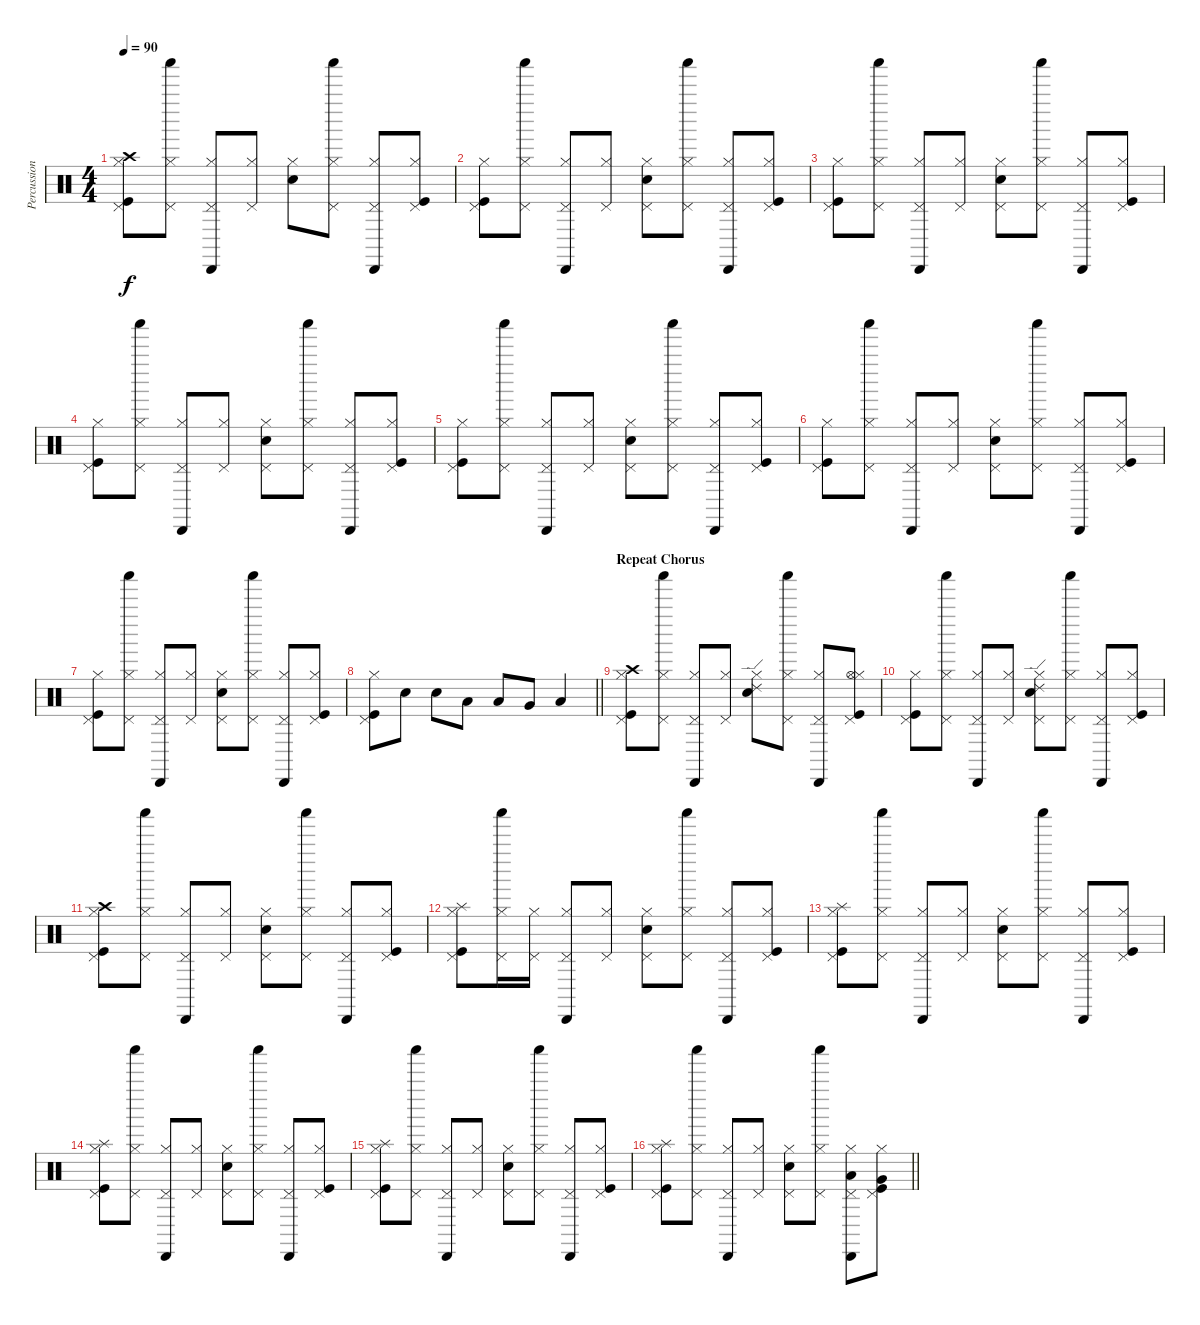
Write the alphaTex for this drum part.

\track ("Percussion" "Percussion") {instrument percussion}
\staff {score}
\articulation defaults
\ts (4 4)
\tempo 90
\clef neutral
\ks c
("Crash high (hit)" "Hi-Hat (closed)" "Pedal Hi-Hat (hit)" "Kick (hit)").8{dy f} ("Hi-Hat (closed)" "Pedal Hi-Hat (hit)" "Shaker (hit)").8 ("Hi-Hat (closed)" "Pedal Hi-Hat (hit)" "Cabasa (hit)").8 ("Hi-Hat (closed)" "Pedal Hi-Hat (hit)").8 ("Electric Snare (hit)" "Hi-Hat (closed)").8 ("Hi-Hat (closed)" "Pedal Hi-Hat (hit)" "Shaker (hit)").8 ("Hi-Hat (closed)" "Pedal Hi-Hat (hit)" "Cabasa (hit)").8 ("Hi-Hat (closed)" "Pedal Hi-Hat (hit)" "Kick (hit)").8 |
("Hi-Hat (closed)" "Pedal Hi-Hat (hit)" "Kick (hit)").8 ("Hi-Hat (closed)" "Pedal Hi-Hat (hit)" "Shaker (hit)").8 ("Hi-Hat (closed)" "Pedal Hi-Hat (hit)" "Cabasa (hit)").8 ("Hi-Hat (closed)" "Pedal Hi-Hat (hit)").8 ("Hi-Hat (closed)" "Pedal Hi-Hat (hit)" "Electric Snare (hit)").8 ("Hi-Hat (closed)" "Pedal Hi-Hat (hit)" "Shaker (hit)").8 ("Hi-Hat (closed)" "Pedal Hi-Hat (hit)" "Cabasa (hit)").8 ("Hi-Hat (closed)" "Pedal Hi-Hat (hit)" "Kick (hit)").8 |
("Hi-Hat (closed)" "Pedal Hi-Hat (hit)" "Kick (hit)").8 ("Hi-Hat (closed)" "Pedal Hi-Hat (hit)" "Shaker (hit)").8 ("Hi-Hat (closed)" "Pedal Hi-Hat (hit)" "Cabasa (hit)").8 ("Hi-Hat (closed)" "Pedal Hi-Hat (hit)").8 ("Hi-Hat (closed)" "Pedal Hi-Hat (hit)" "Electric Snare (hit)").8 ("Hi-Hat (closed)" "Pedal Hi-Hat (hit)" "Shaker (hit)").8 ("Hi-Hat (closed)" "Pedal Hi-Hat (hit)" "Cabasa (hit)").8 ("Hi-Hat (closed)" "Pedal Hi-Hat (hit)" "Kick (hit)").8 |
("Hi-Hat (closed)" "Pedal Hi-Hat (hit)" "Kick (hit)").8 ("Hi-Hat (closed)" "Pedal Hi-Hat (hit)" "Shaker (hit)").8 ("Hi-Hat (closed)" "Pedal Hi-Hat (hit)" "Cabasa (hit)").8 ("Hi-Hat (closed)" "Pedal Hi-Hat (hit)").8 ("Hi-Hat (closed)" "Pedal Hi-Hat (hit)" "Electric Snare (hit)").8 ("Hi-Hat (closed)" "Pedal Hi-Hat (hit)" "Shaker (hit)").8 ("Hi-Hat (closed)" "Pedal Hi-Hat (hit)" "Cabasa (hit)").8 ("Hi-Hat (closed)" "Pedal Hi-Hat (hit)" "Kick (hit)").8 |
("Hi-Hat (closed)" "Pedal Hi-Hat (hit)" "Kick (hit)").8 ("Hi-Hat (closed)" "Pedal Hi-Hat (hit)" "Shaker (hit)").8 ("Hi-Hat (closed)" "Pedal Hi-Hat (hit)" "Cabasa (hit)").8 ("Hi-Hat (closed)" "Pedal Hi-Hat (hit)").8 ("Hi-Hat (closed)" "Pedal Hi-Hat (hit)" "Electric Snare (hit)").8 ("Hi-Hat (closed)" "Pedal Hi-Hat (hit)" "Shaker (hit)").8 ("Hi-Hat (closed)" "Pedal Hi-Hat (hit)" "Cabasa (hit)").8 ("Hi-Hat (closed)" "Pedal Hi-Hat (hit)" "Kick (hit)").8 |
("Hi-Hat (closed)" "Pedal Hi-Hat (hit)" "Kick (hit)").8 ("Hi-Hat (closed)" "Pedal Hi-Hat (hit)" "Shaker (hit)").8 ("Hi-Hat (closed)" "Pedal Hi-Hat (hit)" "Cabasa (hit)").8 ("Hi-Hat (closed)" "Pedal Hi-Hat (hit)").8 ("Hi-Hat (closed)" "Pedal Hi-Hat (hit)" "Electric Snare (hit)").8 ("Hi-Hat (closed)" "Pedal Hi-Hat (hit)" "Shaker (hit)").8 ("Hi-Hat (closed)" "Pedal Hi-Hat (hit)" "Cabasa (hit)").8 ("Hi-Hat (closed)" "Pedal Hi-Hat (hit)" "Kick (hit)").8 |
("Hi-Hat (closed)" "Pedal Hi-Hat (hit)" "Kick (hit)").8 ("Hi-Hat (closed)" "Pedal Hi-Hat (hit)" "Shaker (hit)").8 ("Hi-Hat (closed)" "Pedal Hi-Hat (hit)" "Cabasa (hit)").8 ("Hi-Hat (closed)" "Pedal Hi-Hat (hit)").8 ("Hi-Hat (closed)" "Pedal Hi-Hat (hit)" "Electric Snare (hit)").8 ("Hi-Hat (closed)" "Pedal Hi-Hat (hit)" "Shaker (hit)").8 ("Hi-Hat (closed)" "Pedal Hi-Hat (hit)" "Cabasa (hit)").8 ("Hi-Hat (closed)" "Pedal Hi-Hat (hit)" "Kick (hit)").8 |
\barLineRight lightlight
("Hi-Hat (closed)" "Pedal Hi-Hat (hit)" "Kick (hit)").8 "Electric Snare (hit)".8 "Electric Snare (hit)".8 "Low Tom (hit)".8 "Low Tom (hit)".8 "Very Low Tom (hit)".8 "Low Floor Tom (hit)".4 |
\section ("" "Repeat Chorus")
("Crash high (hit)" "Hi-Hat (closed)" "Pedal Hi-Hat (hit)" "Kick (hit)").8 ("Hi-Hat (closed)" "Pedal Hi-Hat (hit)" "Shaker (hit)").8 ("Hi-Hat (closed)" "Pedal Hi-Hat (hit)" "Cabasa (hit)").8 ("Hi-Hat (closed)" "Pedal Hi-Hat (hit)").8 ("Ride (edge) 2" "Electric Snare (hit)" "Hi-Hat (closed)").8 ("Hi-Hat (closed)" "Pedal Hi-Hat (hit)" "Shaker (hit)").8 ("Hi-Hat (closed)" "Pedal Hi-Hat (hit)" "Cabasa (hit)").8 ("Hi-Hat (open)" "Hi-Hat (closed)" "Pedal Hi-Hat (hit)" "Kick (hit)").8 |
("Hi-Hat (closed)" "Pedal Hi-Hat (hit)" "Kick (hit)").8 ("Hi-Hat (closed)" "Pedal Hi-Hat (hit)" "Shaker (hit)").8 ("Hi-Hat (closed)" "Pedal Hi-Hat (hit)" "Cabasa (hit)").8 ("Hi-Hat (closed)" "Pedal Hi-Hat (hit)").8 ("Ride (edge) 2" "Hi-Hat (closed)" "Pedal Hi-Hat (hit)" "Electric Snare (hit)").8 ("Hi-Hat (closed)" "Pedal Hi-Hat (hit)" "Shaker (hit)").8 ("Hi-Hat (closed)" "Pedal Hi-Hat (hit)" "Cabasa (hit)").8 ("Hi-Hat (closed)" "Pedal Hi-Hat (hit)" "Kick (hit)").8 |
("Hi-Hat (closed)" "Pedal Hi-Hat (hit)" "Kick (hit)" "Crash high (hit)").8 ("Hi-Hat (closed)" "Pedal Hi-Hat (hit)" "Shaker (hit)").8 ("Hi-Hat (closed)" "Pedal Hi-Hat (hit)" "Cabasa (hit)").8 ("Hi-Hat (closed)" "Pedal Hi-Hat (hit)").8 ("Hi-Hat (closed)" "Pedal Hi-Hat (hit)" "Electric Snare (hit)").8 ("Hi-Hat (closed)" "Pedal Hi-Hat (hit)" "Shaker (hit)").8 ("Hi-Hat (closed)" "Pedal Hi-Hat (hit)" "Cabasa (hit)").8 ("Hi-Hat (closed)" "Pedal Hi-Hat (hit)" "Kick (hit)").8 |
("Splash (hit)" "Hi-Hat (closed)" "Pedal Hi-Hat (hit)" "Kick (hit)").8 ("Hi-Hat (closed)" "Pedal Hi-Hat (hit)" "Shaker (hit)").16 ("Hi-Hat (closed)" "Pedal Hi-Hat (hit)").16 ("Hi-Hat (closed)" "Pedal Hi-Hat (hit)" "Cabasa (hit)").8 ("Hi-Hat (closed)" "Pedal Hi-Hat (hit)").8 ("Hi-Hat (closed)" "Pedal Hi-Hat (hit)" "Electric Snare (hit)").8 ("Hi-Hat (closed)" "Pedal Hi-Hat (hit)" "Shaker (hit)").8 ("Hi-Hat (closed)" "Pedal Hi-Hat (hit)" "Cabasa (hit)").8 ("Hi-Hat (closed)" "Pedal Hi-Hat (hit)" "Kick (hit)").8 |
("Splash (hit)" "Hi-Hat (closed)" "Pedal Hi-Hat (hit)" "Kick (hit)").8 ("Hi-Hat (closed)" "Pedal Hi-Hat (hit)" "Shaker (hit)").8 ("Hi-Hat (closed)" "Pedal Hi-Hat (hit)" "Cabasa (hit)").8 ("Hi-Hat (closed)" "Pedal Hi-Hat (hit)").8 ("Hi-Hat (closed)" "Pedal Hi-Hat (hit)" "Electric Snare (hit)").8 ("Hi-Hat (closed)" "Pedal Hi-Hat (hit)" "Shaker (hit)").8 ("Hi-Hat (closed)" "Pedal Hi-Hat (hit)" "Cabasa (hit)").8 ("Hi-Hat (closed)" "Pedal Hi-Hat (hit)" "Kick (hit)").8 |
("Splash (hit)" "Hi-Hat (closed)" "Pedal Hi-Hat (hit)" "Kick (hit)").8 ("Hi-Hat (closed)" "Pedal Hi-Hat (hit)" "Shaker (hit)").8 ("Hi-Hat (closed)" "Pedal Hi-Hat (hit)" "Cabasa (hit)").8 ("Hi-Hat (closed)" "Pedal Hi-Hat (hit)").8 ("Hi-Hat (closed)" "Pedal Hi-Hat (hit)" "Electric Snare (hit)").8 ("Hi-Hat (closed)" "Pedal Hi-Hat (hit)" "Shaker (hit)").8 ("Hi-Hat (closed)" "Pedal Hi-Hat (hit)" "Cabasa (hit)").8 ("Hi-Hat (closed)" "Pedal Hi-Hat (hit)" "Kick (hit)").8 |
("Splash (hit)" "Hi-Hat (closed)" "Pedal Hi-Hat (hit)" "Kick (hit)").8 ("Hi-Hat (closed)" "Pedal Hi-Hat (hit)" "Shaker (hit)").8 ("Hi-Hat (closed)" "Pedal Hi-Hat (hit)" "Cabasa (hit)").8 ("Hi-Hat (closed)" "Pedal Hi-Hat (hit)").8 ("Hi-Hat (closed)" "Pedal Hi-Hat (hit)" "Electric Snare (hit)").8 ("Hi-Hat (closed)" "Pedal Hi-Hat (hit)" "Shaker (hit)").8 ("Hi-Hat (closed)" "Pedal Hi-Hat (hit)" "Cabasa (hit)").8 ("Hi-Hat (closed)" "Pedal Hi-Hat (hit)" "Kick (hit)").8 |
\barLineRight lightlight
("Splash (hit)" "Hi-Hat (closed)" "Pedal Hi-Hat (hit)" "Kick (hit)").8 ("Hi-Hat (closed)" "Pedal Hi-Hat (hit)" "Shaker (hit)").8 ("Hi-Hat (closed)" "Pedal Hi-Hat (hit)" "Cabasa (hit)").8 ("Hi-Hat (closed)" "Pedal Hi-Hat (hit)").8 ("Hi-Hat (closed)" "Pedal Hi-Hat (hit)" "Electric Snare (hit)").8 ("Hi-Hat (closed)" "Pedal Hi-Hat (hit)" "Shaker (hit)").8 ("Hi-Hat (closed)" "Pedal Hi-Hat (hit)" "Low Tom (hit)" "Cabasa (hit)").8 ("Hi-Hat (closed)" "Pedal Hi-Hat (hit)" "Very Low Tom (hit)" "Kick (hit)").8
